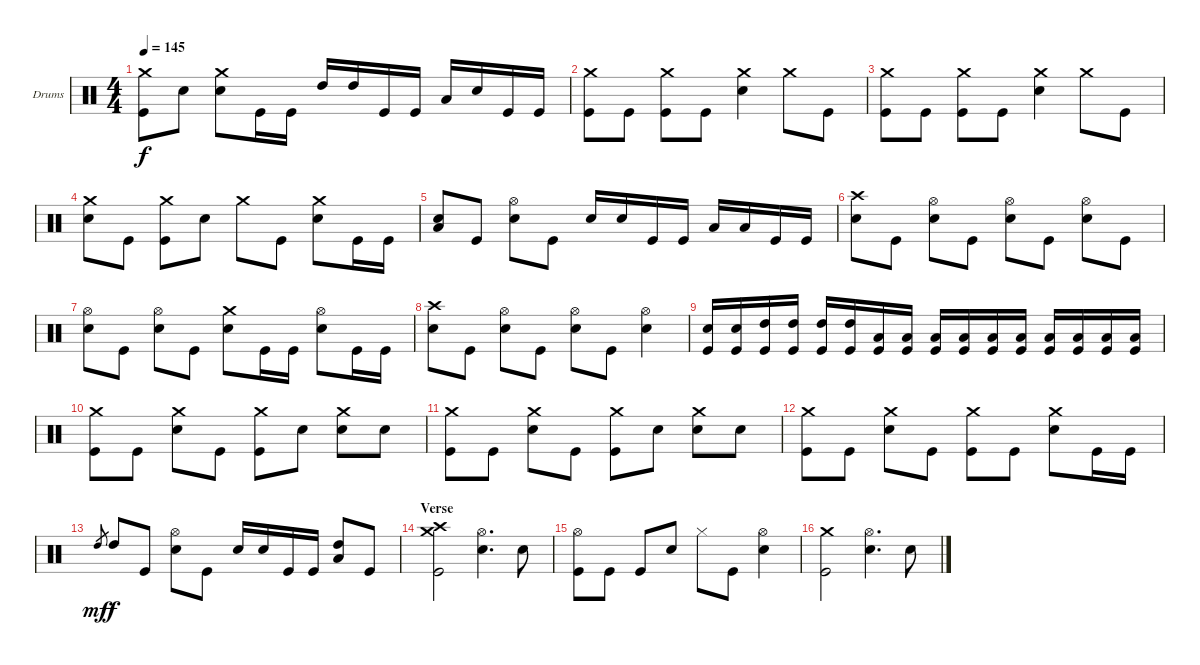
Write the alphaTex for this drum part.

\bracketExtendMode groupsimilarinstruments
\firstSystemTrackNameOrientation horizontal
\otherSystemsTrackNameOrientation horizontal
\track ("Drumkit" "Drums") {instrument percussion}
\staff {score}
\articulation defaults
\ts (4 4)
\tempo 145
\clef neutral
\ks c
("Crash medium (hit)" "Kick (hit)").8{dy f} "Snare (hit) 2".8 ("Crash medium (hit)" "Snare (hit) 2").8 "Kick (hit)".16 "Kick (hit)".16 "High Tom (hit)".16 "High Tom (hit)".16 "Kick (hit)".16 "Kick (hit)".16 "Low Tom (hit)".16 "Snare (hit) 2".16 "Kick (hit)".16 "Kick (hit)".16 |
("Crash medium (hit)" "Kick (hit)").8 "Kick (hit)".8 ("Crash medium (hit)" "Kick (hit)").8 "Kick (hit)".8 ("Crash medium (hit)" "Snare (hit) 2").4 "Crash medium (hit)".8 "Kick (hit)".8 |
("Crash medium (hit)" "Kick (hit)").8 "Kick (hit)".8 ("Crash medium (hit)" "Kick (hit)").8 "Kick (hit)".8 ("Crash medium (hit)" "Snare (hit) 2").4 "Crash medium (hit)".8 "Kick (hit)".8 |
("Crash medium (hit)" "Snare (hit) 2").8 "Kick (hit)".8 ("Crash medium (hit)" "Kick (hit)").8 "Snare (hit) 2".8 "Crash medium (hit)".8 "Kick (hit)".8 ("Crash medium (hit)" "Snare (hit) 2").8 "Kick (hit)".16 "Kick (hit)".16 |
("Snare (hit) 2" "Low Tom (hit)").8 "Kick (hit)".8 ("Hi-Hat (open)" "Snare (hit) 2").8 "Kick (hit)".8 "Snare (hit) 2".16 "Snare (hit) 2".16 "Kick (hit)".16 "Kick (hit)".16 "Low Tom (hit)".16 "Low Tom (hit)".16 "Kick (hit)".16 "Kick (hit)".16 |
("Crash high (hit)" "Snare (hit) 2").8 "Kick (hit)".8 ("Hi-Hat (open)" "Snare (hit) 2").8 "Kick (hit)".8 ("Hi-Hat (open)" "Snare (hit) 2").8 "Kick (hit)".8 ("Hi-Hat (open)" "Snare (hit) 2").8 "Kick (hit)".8 |
("Hi-Hat (open)" "Snare (hit) 2").8 "Kick (hit)".8 ("Hi-Hat (open)" "Snare (hit) 2").8 "Kick (hit)".8 ("Crash medium (hit)" "Snare (hit) 2").8 "Kick (hit)".16 "Kick (hit)".16 ("Hi-Hat (open)" "Snare (hit) 2").8 "Kick (hit)".16 "Kick (hit)".16 |
("Crash high (hit)" "Snare (hit) 2").8 "Kick (hit)".8 ("Hi-Hat (open)" "Snare (hit) 2").8 "Kick (hit)".8 ("Hi-Hat (open)" "Snare (hit) 2").8 "Kick (hit)".8 ("Hi-Hat (open)" "Snare (hit) 2").4 |
("Snare (hit) 2" "Kick (hit)").16 ("Snare (hit) 2" "Kick (hit)").16 ("High Tom (hit)" "Kick (hit)").16 ("High Tom (hit)" "Kick (hit)").16 ("High Tom (hit)" "Kick (hit)").16 ("High Tom (hit)" "Kick (hit)").16 ("Low Tom (hit)" "Kick (hit)").16 ("Low Tom (hit)" "Kick (hit)").16 ("Low Tom (hit)" "Kick (hit)").16 ("Low Tom (hit)" "Kick (hit)").16 ("Low Tom (hit)" "Kick (hit)").16 ("Low Tom (hit)" "Kick (hit)").16 ("Low Tom (hit)" "Kick (hit)").16 ("Low Tom (hit)" "Kick (hit)").16 ("Low Tom (hit)" "Kick (hit)").16 ("Low Tom (hit)" "Kick (hit)").16 |
("Crash medium (hit)" "Kick (hit)").8 "Kick (hit)".8 ("Crash medium (hit)" "Snare (hit) 2").8 "Kick (hit)".8 ("Crash medium (hit)" "Kick (hit)").8 "Snare (hit) 2".8 ("Crash medium (hit)" "Snare (hit) 2").8 "Snare (hit) 2".8 |
("Crash medium (hit)" "Kick (hit)").8 "Kick (hit)".8 ("Crash medium (hit)" "Snare (hit) 2").8 "Kick (hit)".8 ("Crash medium (hit)" "Kick (hit)").8 "Snare (hit) 2".8 ("Crash medium (hit)" "Snare (hit) 2").8 "Snare (hit) 2".8 |
("Crash medium (hit)" "Kick (hit)").8 "Kick (hit)".8 ("Crash medium (hit)" "Snare (hit) 2").8 "Kick (hit)".8 ("Crash medium (hit)" "Kick (hit)").8 "Kick (hit)".8 ("Crash medium (hit)" "Snare (hit) 2").8 "Kick (hit)".16 "Kick (hit)".16 |
"High Tom (hit)".8{gr dy mf} "High Tom (hit)".8{dy f} "Kick (hit)".8 ("Hi-Hat (open)" "Snare (hit) 2").8 "Kick (hit)".8 "Snare (hit) 2".16 "Snare (hit) 2".16 "Kick (hit)".16 "Kick (hit)".16 ("High Tom (hit)" "Low Tom (hit)").8 "Kick (hit)".8 |
\section ("" "Verse")
("Crash medium (hit)" "Crash high (hit)" "Kick (hit)").2 ("Hi-Hat (open)" "Snare (hit) 2").4{d} "Snare (hit) 2".8 |
("Hi-Hat (open)" "Kick (hit)").8 "Kick (hit)".8 "Kick (hit)".8 "Snare (hit) 2".8 "Hi-Hat (closed)".8 "Kick (hit)".8 ("Hi-Hat (open)" "Snare (hit) 2").4 |
("Crash medium (hit)" "Kick (hit)").2 ("Hi-Hat (open)" "Snare (hit) 2").4{d} "Snare (hit) 2".8
